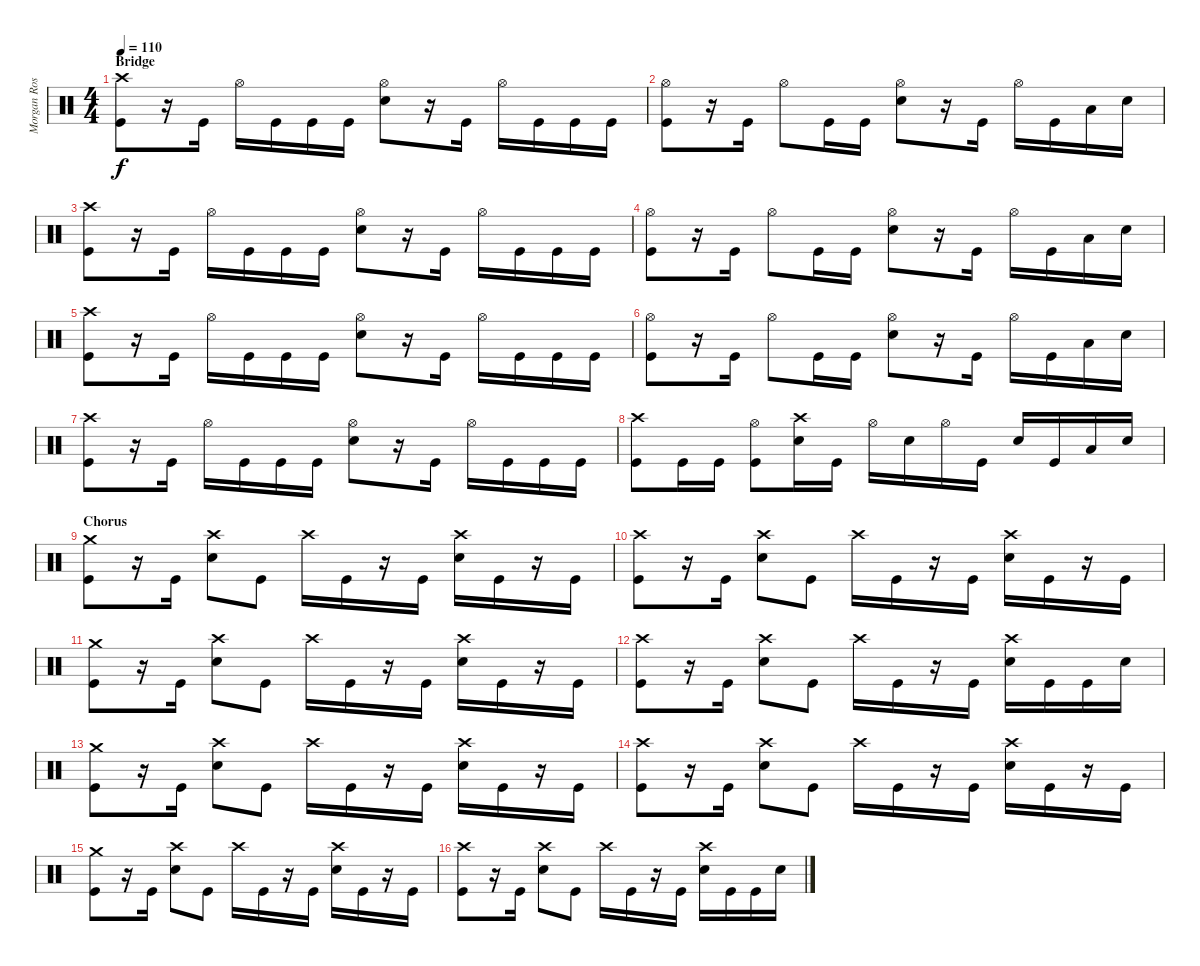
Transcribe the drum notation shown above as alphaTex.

\track ("Morgan Rose" "Morgan Ros") {instrument percussion}
\staff {score}
\articulation defaults
\ts (4 4)
\section ("" "Bridge")
\tempo 110
\clef neutral
\ks c
("Crash high (hit)" "Kick (hit)").8{dy f} r.16 "Kick (hit)".16 "Hi-Hat (open)".16 "Kick (hit)".16 "Kick (hit)".16 "Kick (hit)".16 ("Hi-Hat (open)" "Snare (hit) 2").8 r.16 "Kick (hit)".16 "Hi-Hat (open)".16 "Kick (hit)".16 "Kick (hit)".16 "Kick (hit)".16 |
("Hi-Hat (open)" "Kick (hit)").8 r.16 "Kick (hit)".16 "Hi-Hat (open)".8 "Kick (hit)".16 "Kick (hit)".16 ("Hi-Hat (open)" "Snare (hit) 2").8 r.16 "Kick (hit)".16 "Hi-Hat (open)".16 "Kick (hit)".16 "Low Tom (hit)".16 "Snare (hit) 2".16 |
("Crash high (hit)" "Kick (hit)").8 r.16 "Kick (hit)".16 "Hi-Hat (open)".16 "Kick (hit)".16 "Kick (hit)".16 "Kick (hit)".16 ("Hi-Hat (open)" "Snare (hit) 2").8 r.16 "Kick (hit)".16 "Hi-Hat (open)".16 "Kick (hit)".16 "Kick (hit)".16 "Kick (hit)".16 |
("Hi-Hat (open)" "Kick (hit)").8 r.16 "Kick (hit)".16 "Hi-Hat (open)".8 "Kick (hit)".16 "Kick (hit)".16 ("Hi-Hat (open)" "Snare (hit) 2").8 r.16 "Kick (hit)".16 "Hi-Hat (open)".16 "Kick (hit)".16 "Low Tom (hit)".16 "Snare (hit) 2".16 |
("Crash high (hit)" "Kick (hit)").8 r.16 "Kick (hit)".16 "Hi-Hat (open)".16 "Kick (hit)".16 "Kick (hit)".16 "Kick (hit)".16 ("Hi-Hat (open)" "Snare (hit) 2").8 r.16 "Kick (hit)".16 "Hi-Hat (open)".16 "Kick (hit)".16 "Kick (hit)".16 "Kick (hit)".16 |
("Hi-Hat (open)" "Kick (hit)").8 r.16 "Kick (hit)".16 "Hi-Hat (open)".8 "Kick (hit)".16 "Kick (hit)".16 ("Hi-Hat (open)" "Snare (hit) 2").8 r.16 "Kick (hit)".16 "Hi-Hat (open)".16 "Kick (hit)".16 "Low Tom (hit)".16 "Snare (hit) 2".16 |
("Crash high (hit)" "Kick (hit)").8 r.16 "Kick (hit)".16 "Hi-Hat (open)".16 "Kick (hit)".16 "Kick (hit)".16 "Kick (hit)".16 ("Hi-Hat (open)" "Snare (hit) 2").8 r.16 "Kick (hit)".16 "Hi-Hat (open)".16 "Kick (hit)".16 "Kick (hit)".16 "Kick (hit)".16 |
("Crash high (hit)" "Kick (hit)").8 "Kick (hit)".16 "Kick (hit)".16 ("Hi-Hat (open)" "Kick (hit)").8 ("Crash high (hit)" "Snare (hit) 2").16 "Kick (hit)".16 "Hi-Hat (open)".16 "Snare (hit) 2".16 "Hi-Hat (open)".16 "Kick (hit)".16 "Snare (hit) 2".16 "Kick (hit)".16 "Low Tom (hit)".16 "Snare (hit) 2".16 |
\section ("" "Chorus")
("Crash medium (hit)" "Kick (hit)").8 r.16 "Kick (hit)".16 ("Crash high (hit)" "Snare (hit) 2").8 "Kick (hit)".8 "Crash high (hit)".16 "Kick (hit)".16 r.16 "Kick (hit)".16 ("Crash high (hit)" "Snare (hit) 2").16 "Kick (hit)".16 r.16 "Kick (hit)".16 |
("Crash high (hit)" "Kick (hit)").8 r.16 "Kick (hit)".16 ("Crash high (hit)" "Snare (hit) 2").8 "Kick (hit)".8 "Crash high (hit)".16 "Kick (hit)".16 r.16 "Kick (hit)".16 ("Crash high (hit)" "Snare (hit) 2").16 "Kick (hit)".16 r.16 "Kick (hit)".16 |
("Crash medium (hit)" "Kick (hit)").8 r.16 "Kick (hit)".16 ("Crash high (hit)" "Snare (hit) 2").8 "Kick (hit)".8 "Crash high (hit)".16 "Kick (hit)".16 r.16 "Kick (hit)".16 ("Crash high (hit)" "Snare (hit) 2").16 "Kick (hit)".16 r.16 "Kick (hit)".16 |
("Crash high (hit)" "Kick (hit)").8 r.16 "Kick (hit)".16 ("Crash high (hit)" "Snare (hit) 2").8 "Kick (hit)".8 "Crash high (hit)".16 "Kick (hit)".16 r.16 "Kick (hit)".16 ("Crash high (hit)" "Snare (hit) 2").16 "Kick (hit)".16 "Kick (hit)".16 "Snare (hit) 2".16 |
("Crash medium (hit)" "Kick (hit)").8 r.16 "Kick (hit)".16 ("Crash high (hit)" "Snare (hit) 2").8 "Kick (hit)".8 "Crash high (hit)".16 "Kick (hit)".16 r.16 "Kick (hit)".16 ("Crash high (hit)" "Snare (hit) 2").16 "Kick (hit)".16 r.16 "Kick (hit)".16 |
("Crash high (hit)" "Kick (hit)").8 r.16 "Kick (hit)".16 ("Crash high (hit)" "Snare (hit) 2").8 "Kick (hit)".8 "Crash high (hit)".16 "Kick (hit)".16 r.16 "Kick (hit)".16 ("Crash high (hit)" "Snare (hit) 2").16 "Kick (hit)".16 r.16 "Kick (hit)".16 |
("Crash medium (hit)" "Kick (hit)").8 r.16 "Kick (hit)".16 ("Crash high (hit)" "Snare (hit) 2").8 "Kick (hit)".8 "Crash high (hit)".16 "Kick (hit)".16 r.16 "Kick (hit)".16 ("Crash high (hit)" "Snare (hit) 2").16 "Kick (hit)".16 r.16 "Kick (hit)".16 |
("Crash high (hit)" "Kick (hit)").8 r.16 "Kick (hit)".16 ("Crash high (hit)" "Snare (hit) 2").8 "Kick (hit)".8 "Crash high (hit)".16 "Kick (hit)".16 r.16 "Kick (hit)".16 ("Crash high (hit)" "Snare (hit) 2").16 "Kick (hit)".16 "Kick (hit)".16 "Snare (hit) 2".16
